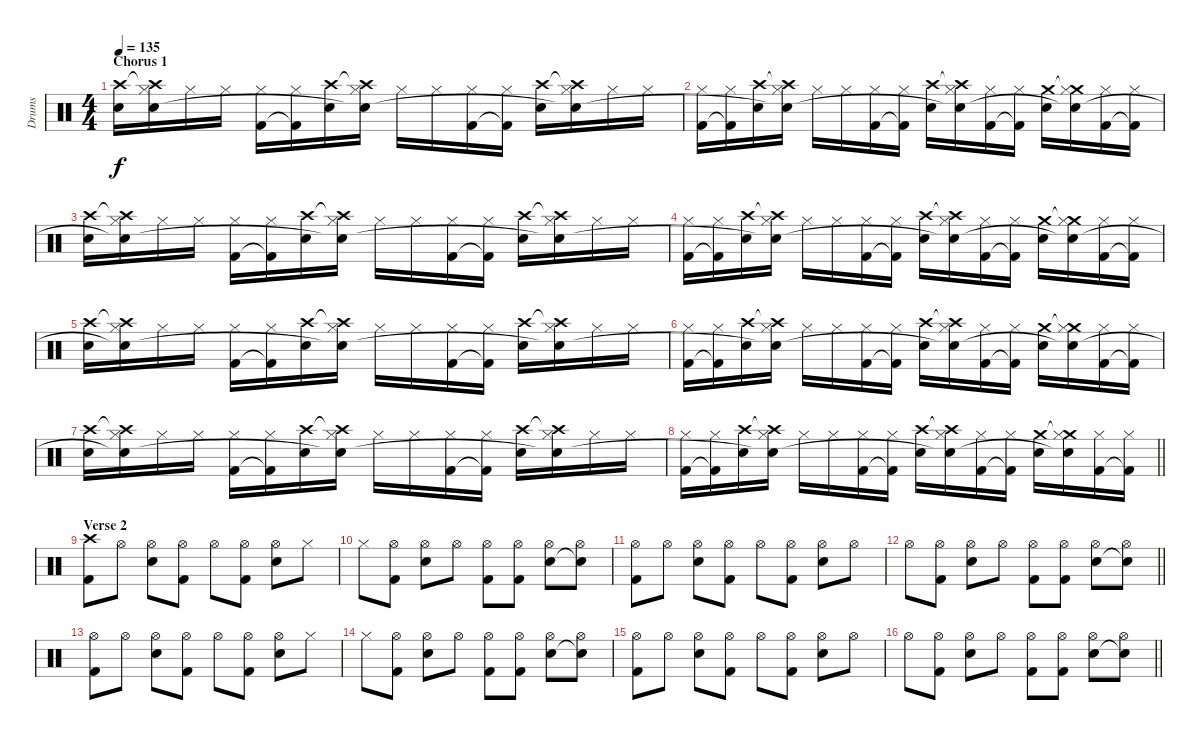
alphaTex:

\track ("Drums" "Drums") {instrument percussion}
\staff {score}
\articulation defaults
\ts (4 4)
\section ("" "Chorus 1")
\tempo 135
\clef neutral
\ks c
("Crash high (hit)" "Snare (hit) 2").16{dy f} ("Crash high (hit)"{t} "Hi-Hat (closed)" "Snare (hit) 2"{t}).16 "Hi-Hat (closed)".16 "Hi-Hat (closed)".16 ("Hi-Hat (closed)" "Kick (hit) 2").16 ("Hi-Hat (closed)" "Kick (hit) 2"{t}).16 ("Crash high (hit)" "Snare (hit) 2").16 ("Crash high (hit)"{t} "Hi-Hat (closed)" "Snare (hit) 2"{t}).16 "Hi-Hat (closed)".16 "Hi-Hat (closed)".16 ("Hi-Hat (closed)" "Kick (hit) 2").16 ("Hi-Hat (closed)" "Kick (hit) 2"{t}).16 ("Crash high (hit)" "Snare (hit) 2").16 ("Crash high (hit)"{t} "Hi-Hat (closed)" "Snare (hit) 2"{t}).16 "Hi-Hat (closed)".16 "Hi-Hat (closed)".16 |
("Hi-Hat (closed)" "Kick (hit) 2").16 ("Hi-Hat (closed)" "Kick (hit) 2"{t}).16 ("Crash high (hit)" "Snare (hit) 2").16 ("Crash high (hit)"{t} "Hi-Hat (closed)" "Snare (hit) 2"{t}).16 "Hi-Hat (closed)".16 "Hi-Hat (closed)".16 ("Hi-Hat (closed)" "Kick (hit) 2").16 ("Hi-Hat (closed)" "Kick (hit) 2"{t}).16 ("Crash high (hit)" "Snare (hit) 2").16 ("Crash high (hit)"{t} "Hi-Hat (closed)" "Snare (hit) 2"{t}).16 ("Hi-Hat (closed)" "Kick (hit) 2").16 ("Hi-Hat (closed)" "Kick (hit) 2"{t}).16 ("Crash medium (hit)" "Snare (hit) 2").16 ("Crash medium (hit)"{t} "Hi-Hat (closed)" "Snare (hit) 2"{t}).16 ("Hi-Hat (closed)" "Kick (hit) 2").16 ("Hi-Hat (closed)" "Kick (hit) 2"{t}).16 |
("Crash high (hit)" "Snare (hit) 2").16 ("Crash high (hit)"{t} "Hi-Hat (closed)" "Snare (hit) 2"{t}).16 "Hi-Hat (closed)".16 "Hi-Hat (closed)".16 ("Hi-Hat (closed)" "Kick (hit) 2").16 ("Hi-Hat (closed)" "Kick (hit) 2"{t}).16 ("Crash high (hit)" "Snare (hit) 2").16 ("Crash high (hit)"{t} "Hi-Hat (closed)" "Snare (hit) 2"{t}).16 "Hi-Hat (closed)".16 "Hi-Hat (closed)".16 ("Hi-Hat (closed)" "Kick (hit) 2").16 ("Hi-Hat (closed)" "Kick (hit) 2"{t}).16 ("Crash high (hit)" "Snare (hit) 2").16 ("Crash high (hit)"{t} "Hi-Hat (closed)" "Snare (hit) 2"{t}).16 "Hi-Hat (closed)".16 "Hi-Hat (closed)".16 |
("Hi-Hat (closed)" "Kick (hit) 2").16 ("Hi-Hat (closed)" "Kick (hit) 2"{t}).16 ("Crash high (hit)" "Snare (hit) 2").16 ("Crash high (hit)"{t} "Hi-Hat (closed)" "Snare (hit) 2"{t}).16 "Hi-Hat (closed)".16 "Hi-Hat (closed)".16 ("Hi-Hat (closed)" "Kick (hit) 2").16 ("Hi-Hat (closed)" "Kick (hit) 2"{t}).16 ("Crash high (hit)" "Snare (hit) 2").16 ("Crash high (hit)"{t} "Hi-Hat (closed)" "Snare (hit) 2"{t}).16 ("Hi-Hat (closed)" "Kick (hit) 2").16 ("Hi-Hat (closed)" "Kick (hit) 2"{t}).16 ("Crash medium (hit)" "Snare (hit) 2").16 ("Crash medium (hit)"{t} "Hi-Hat (closed)" "Snare (hit) 2"{t}).16 ("Hi-Hat (closed)" "Kick (hit) 2").16 ("Hi-Hat (closed)" "Kick (hit) 2"{t}).16 |
("Crash high (hit)" "Snare (hit) 2").16 ("Crash high (hit)"{t} "Hi-Hat (closed)" "Snare (hit) 2"{t}).16 "Hi-Hat (closed)".16 "Hi-Hat (closed)".16 ("Hi-Hat (closed)" "Kick (hit) 2").16 ("Hi-Hat (closed)" "Kick (hit) 2"{t}).16 ("Crash high (hit)" "Snare (hit) 2").16 ("Crash high (hit)"{t} "Hi-Hat (closed)" "Snare (hit) 2"{t}).16 "Hi-Hat (closed)".16 "Hi-Hat (closed)".16 ("Hi-Hat (closed)" "Kick (hit) 2").16 ("Hi-Hat (closed)" "Kick (hit) 2"{t}).16 ("Crash high (hit)" "Snare (hit) 2").16 ("Crash high (hit)"{t} "Hi-Hat (closed)" "Snare (hit) 2"{t}).16 "Hi-Hat (closed)".16 "Hi-Hat (closed)".16 |
("Hi-Hat (closed)" "Kick (hit) 2").16 ("Hi-Hat (closed)" "Kick (hit) 2"{t}).16 ("Crash high (hit)" "Snare (hit) 2").16 ("Crash high (hit)"{t} "Hi-Hat (closed)" "Snare (hit) 2"{t}).16 "Hi-Hat (closed)".16 "Hi-Hat (closed)".16 ("Hi-Hat (closed)" "Kick (hit) 2").16 ("Hi-Hat (closed)" "Kick (hit) 2"{t}).16 ("Crash high (hit)" "Snare (hit) 2").16 ("Crash high (hit)"{t} "Hi-Hat (closed)" "Snare (hit) 2"{t}).16 ("Hi-Hat (closed)" "Kick (hit) 2").16 ("Hi-Hat (closed)" "Kick (hit) 2"{t}).16 ("Crash medium (hit)" "Snare (hit) 2").16 ("Crash medium (hit)"{t} "Hi-Hat (closed)" "Snare (hit) 2"{t}).16 ("Hi-Hat (closed)" "Kick (hit) 2").16 ("Hi-Hat (closed)" "Kick (hit) 2"{t}).16 |
("Crash high (hit)" "Snare (hit) 2").16 ("Crash high (hit)"{t} "Hi-Hat (closed)" "Snare (hit) 2"{t}).16 "Hi-Hat (closed)".16 "Hi-Hat (closed)".16 ("Hi-Hat (closed)" "Kick (hit) 2").16 ("Hi-Hat (closed)" "Kick (hit) 2"{t}).16 ("Crash high (hit)" "Snare (hit) 2").16 ("Crash high (hit)"{t} "Hi-Hat (closed)" "Snare (hit) 2"{t}).16 "Hi-Hat (closed)".16 "Hi-Hat (closed)".16 ("Hi-Hat (closed)" "Kick (hit) 2").16 ("Hi-Hat (closed)" "Kick (hit) 2"{t}).16 ("Crash high (hit)" "Snare (hit) 2").16 ("Crash high (hit)"{t} "Hi-Hat (closed)" "Snare (hit) 2"{t}).16 "Hi-Hat (closed)".16 "Hi-Hat (closed)".16 |
\barLineRight lightlight
("Hi-Hat (closed)" "Kick (hit) 2").16 ("Hi-Hat (closed)" "Kick (hit) 2"{t}).16 ("Crash high (hit)" "Snare (hit) 2").16 ("Crash high (hit)"{t} "Hi-Hat (closed)" "Snare (hit) 2"{t}).16 "Hi-Hat (closed)".16 "Hi-Hat (closed)".16 ("Hi-Hat (closed)" "Kick (hit) 2").16 ("Hi-Hat (closed)" "Kick (hit) 2"{t}).16 ("Crash high (hit)" "Snare (hit) 2").16 ("Crash high (hit)"{t} "Hi-Hat (closed)" "Snare (hit) 2"{t}).16 ("Hi-Hat (closed)" "Kick (hit) 2").16 ("Hi-Hat (closed)" "Kick (hit) 2"{t}).16 ("Crash medium (hit)" "Snare (hit) 2").16 ("Crash medium (hit)"{t} "Hi-Hat (closed)" "Snare (hit) 2"{t}).16 ("Hi-Hat (closed)" "Kick (hit) 2").16 ("Hi-Hat (closed)" "Kick (hit) 2"{t}).16 |
\section ("" "Verse 2")
("Crash high (hit)" "Kick (hit) 2").8 "Hi-Hat (open)".8 ("Hi-Hat (open)" "Snare (hit) 2").8 ("Hi-Hat (open)" "Kick (hit) 2").8 "Hi-Hat (open)".8 ("Hi-Hat (open)" "Kick (hit) 2").8 ("Hi-Hat (open)" "Snare (hit) 2").8 "Hi-Hat (closed)".8 |
"Hi-Hat (closed)".8 ("Hi-Hat (open)" "Kick (hit) 2").8 ("Hi-Hat (open)" "Snare (hit) 2").8 "Hi-Hat (open)".8 ("Hi-Hat (open)" "Kick (hit) 2").8 ("Hi-Hat (open)" "Kick (hit) 2").8 ("Hi-Hat (open)" "Snare (hit) 2").8 ("Hi-Hat (open)" "Snare (hit) 2"{t}).8 |
("Hi-Hat (open)" "Kick (hit) 2").8 "Hi-Hat (open)".8 ("Hi-Hat (open)" "Snare (hit) 2").8 ("Hi-Hat (open)" "Kick (hit) 2").8 "Hi-Hat (open)".8 ("Hi-Hat (open)" "Kick (hit) 2").8 ("Hi-Hat (open)" "Snare (hit) 2").8 "Hi-Hat (open)".8 |
\barLineRight lightlight "Hi-Hat (open)".8
("Hi-Hat (open)" "Kick (hit) 2").8 ("Hi-Hat (open)" "Snare (hit) 2").8 "Hi-Hat (open)".8 ("Hi-Hat (open)" "Kick (hit) 2").8 ("Hi-Hat (open)" "Kick (hit) 2").8 ("Hi-Hat (open)" "Snare (hit) 2").8 ("Hi-Hat (open)" "Snare (hit) 2"{t}).8 |
("Hi-Hat (open)" "Kick (hit) 2").8 "Hi-Hat (open)".8 ("Hi-Hat (open)" "Snare (hit) 2").8 ("Hi-Hat (open)" "Kick (hit) 2").8 "Hi-Hat (open)".8 ("Hi-Hat (open)" "Kick (hit) 2").8 ("Hi-Hat (open)" "Snare (hit) 2").8 "Hi-Hat (closed)".8 |
"Hi-Hat (closed)".8 ("Hi-Hat (open)" "Kick (hit) 2").8 ("Hi-Hat (open)" "Snare (hit) 2").8 "Hi-Hat (open)".8 ("Hi-Hat (open)" "Kick (hit) 2").8 ("Hi-Hat (open)" "Kick (hit) 2").8 ("Hi-Hat (open)" "Snare (hit) 2").8 ("Hi-Hat (open)" "Snare (hit) 2"{t}).8 |
("Hi-Hat (open)" "Kick (hit) 2").8 "Hi-Hat (open)".8 ("Hi-Hat (open)" "Snare (hit) 2").8 ("Hi-Hat (open)" "Kick (hit) 2").8 "Hi-Hat (open)".8 ("Hi-Hat (open)" "Kick (hit) 2").8 ("Hi-Hat (open)" "Snare (hit) 2").8 "Hi-Hat (open)".8 |
\barLineRight lightlight "Hi-Hat (open)".8
("Hi-Hat (open)" "Kick (hit) 2").8 ("Hi-Hat (open)" "Snare (hit) 2").8 "Hi-Hat (open)".8 ("Hi-Hat (open)" "Kick (hit) 2").8 ("Hi-Hat (open)" "Kick (hit) 2").8 ("Hi-Hat (open)" "Snare (hit) 2").8 ("Hi-Hat (open)" "Snare (hit) 2"{t}).8
